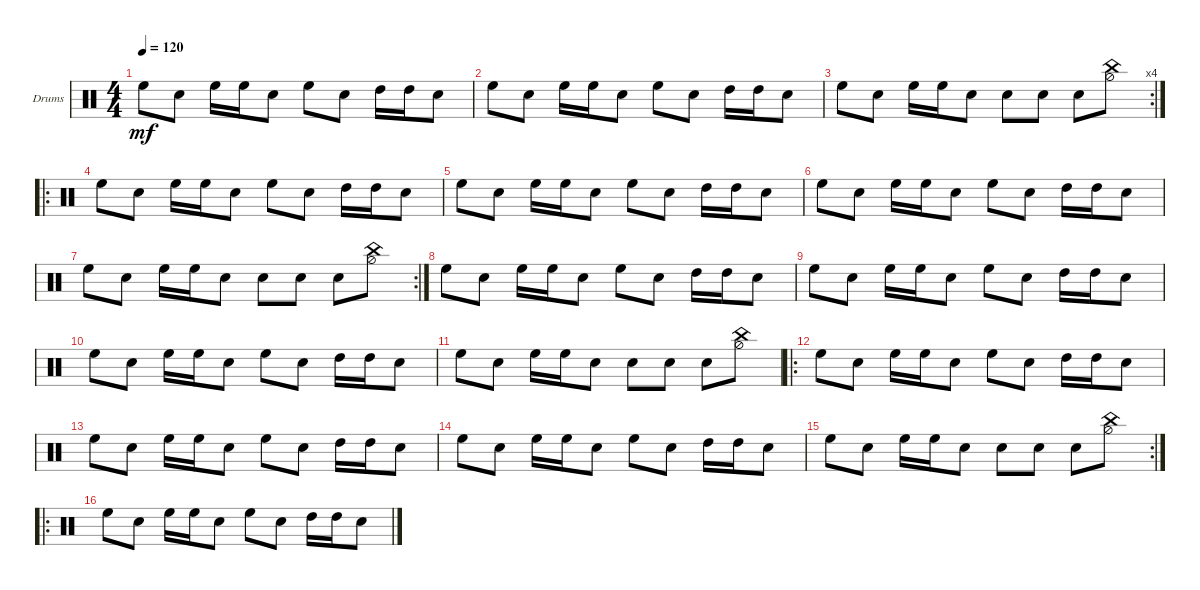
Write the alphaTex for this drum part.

\defaultSystemsLayout 4
\bracketExtendMode groupsimilarinstruments
\firstSystemTrackNameOrientation horizontal
\otherSystemsTrackNameOrientation horizontal
\track ("Drumkit" "Drums") {instrument percussion}
\staff {score}
\articulation defaults
\ts (4 4)
\tempo 120
\clef neutral
\ks c "High Floor Tom (hit)".8{dy mf} "Snare (hit) 2".8 "High Floor Tom (hit)".16 "High Floor Tom (hit)".16 "Snare (hit) 2".8 "High Floor Tom (hit)".8 "Snare (hit) 2".8 "High Tom (hit)".16 "High Tom (hit)".16 "Snare (hit) 2".8
|
"High Floor Tom (hit)".8 "Snare (hit) 2".8 "High Floor Tom (hit)".16 "High Floor Tom (hit)".16 "Snare (hit) 2".8 "High Floor Tom (hit)".8 "Snare (hit) 2".8 "High Tom (hit)".16 "High Tom (hit)".16 "Snare (hit) 2".8 |
\rc 4 "High Floor Tom (hit)".8 "Snare (hit) 2".8 "High Floor Tom (hit)".16 "High Floor Tom (hit)".16 "Snare (hit) 2".8 "Snare (hit) 2".8 "Snare (hit) 2".8 "Snare (hit) 2".8
("Hi-Hat (half)" "China (hit)").8 |
\ro "High Floor Tom (hit)".8 "Snare (hit) 2".8 "High Floor Tom (hit)".16 "High Floor Tom (hit)".16 "Snare (hit) 2".8 "High Floor Tom (hit)".8 "Snare (hit) 2".8 "High Tom (hit)".16 "High Tom (hit)".16 "Snare (hit) 2".8
|
"High Floor Tom (hit)".8 "Snare (hit) 2".8 "High Floor Tom (hit)".16 "High Floor Tom (hit)".16 "Snare (hit) 2".8 "High Floor Tom (hit)".8 "Snare (hit) 2".8 "High Tom (hit)".16 "High Tom (hit)".16 "Snare (hit) 2".8 |
"High Floor Tom (hit)".8 "Snare (hit) 2".8 "High Floor Tom (hit)".16 "High Floor Tom (hit)".16 "Snare (hit) 2".8 "High Floor Tom (hit)".8 "Snare (hit) 2".8 "High Tom (hit)".16 "High Tom (hit)".16 "Snare (hit) 2".8 |
\rc 2 "High Floor Tom (hit)".8 "Snare (hit) 2".8 "High Floor Tom (hit)".16 "High Floor Tom (hit)".16 "Snare (hit) 2".8 "Snare (hit) 2".8 "Snare (hit) 2".8 "Snare (hit) 2".8
("Hi-Hat (half)" "China (hit)").8 |
"High Floor Tom (hit)".8 "Snare (hit) 2".8 "High Floor Tom (hit)".16 "High Floor Tom (hit)".16 "Snare (hit) 2".8 "High Floor Tom (hit)".8 "Snare (hit) 2".8 "High Tom (hit)".16 "High Tom (hit)".16 "Snare (hit) 2".8 |
"High Floor Tom (hit)".8 "Snare (hit) 2".8 "High Floor Tom (hit)".16 "High Floor Tom (hit)".16 "Snare (hit) 2".8 "High Floor Tom (hit)".8 "Snare (hit) 2".8 "High Tom (hit)".16 "High Tom (hit)".16 "Snare (hit) 2".8 |
"High Floor Tom (hit)".8 "Snare (hit) 2".8 "High Floor Tom (hit)".16 "High Floor Tom (hit)".16 "Snare (hit) 2".8 "High Floor Tom (hit)".8 "Snare (hit) 2".8 "High Tom (hit)".16 "High Tom (hit)".16 "Snare (hit) 2".8 |
"High Floor Tom (hit)".8 "Snare (hit) 2".8 "High Floor Tom (hit)".16 "High Floor Tom (hit)".16 "Snare (hit) 2".8 "Snare (hit) 2".8 "Snare (hit) 2".8 "Snare (hit) 2".8 ("Hi-Hat (half)" "China (hit)").8 |
\ro "High Floor Tom (hit)".8 "Snare (hit) 2".8 "High Floor Tom (hit)".16 "High Floor Tom (hit)".16 "Snare (hit) 2".8 "High Floor Tom (hit)".8 "Snare (hit) 2".8 "High Tom (hit)".16 "High Tom (hit)".16 "Snare (hit) 2".8
|
"High Floor Tom (hit)".8 "Snare (hit) 2".8 "High Floor Tom (hit)".16 "High Floor Tom (hit)".16 "Snare (hit) 2".8 "High Floor Tom (hit)".8 "Snare (hit) 2".8 "High Tom (hit)".16 "High Tom (hit)".16 "Snare (hit) 2".8 |
"High Floor Tom (hit)".8 "Snare (hit) 2".8 "High Floor Tom (hit)".16 "High Floor Tom (hit)".16 "Snare (hit) 2".8 "High Floor Tom (hit)".8 "Snare (hit) 2".8 "High Tom (hit)".16 "High Tom (hit)".16 "Snare (hit) 2".8 |
\rc 2 "High Floor Tom (hit)".8 "Snare (hit) 2".8 "High Floor Tom (hit)".16 "High Floor Tom (hit)".16 "Snare (hit) 2".8 "Snare (hit) 2".8 "Snare (hit) 2".8 "Snare (hit) 2".8
("Hi-Hat (half)" "China (hit)").8 |
\ro "High Floor Tom (hit)".8 "Snare (hit) 2".8 "High Floor Tom (hit)".16 "High Floor Tom (hit)".16 "Snare (hit) 2".8 "High Floor Tom (hit)".8 "Snare (hit) 2".8 "High Tom (hit)".16 "High Tom (hit)".16 "Snare (hit) 2".8
